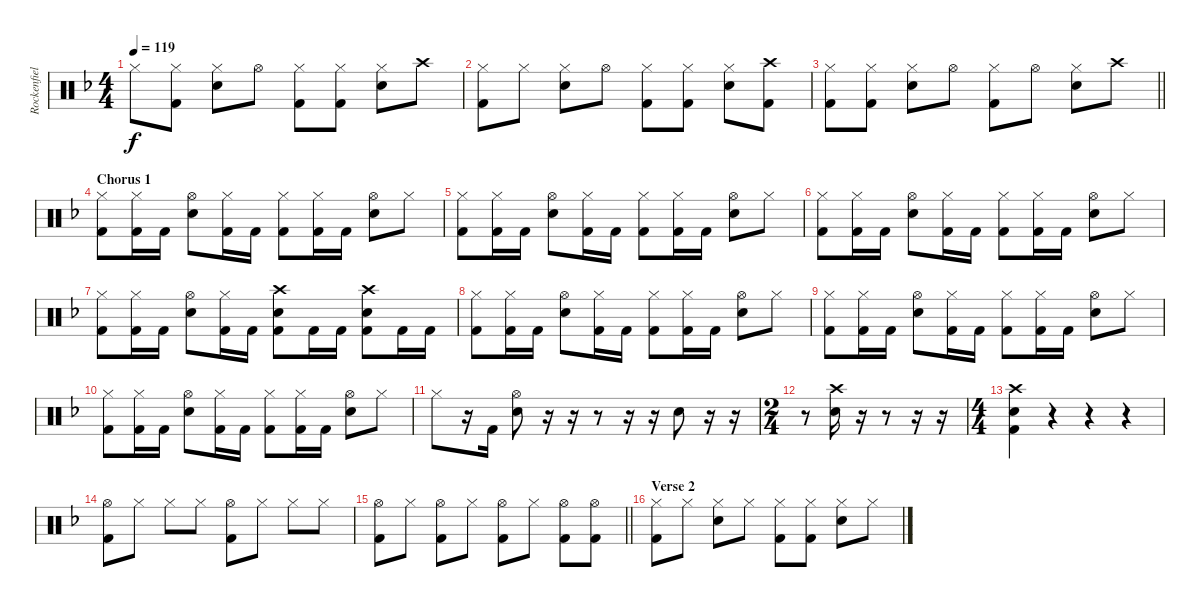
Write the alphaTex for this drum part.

\track ("Rockenfield" "Rockenfiel") {instrument percussion}
\staff {score}
\articulation defaults
\ts (4 4)
\tempo 119
\clef neutral
\ks dminor "Hi-Hat (closed)".8{dy f}
("Hi-Hat (closed)" "Kick (hit) 2").8 ("Hi-Hat (closed)" "Snare (hit) 2").8 "Hi-Hat (open)".8 ("Hi-Hat (closed)" "Kick (hit) 2").8 ("Hi-Hat (closed)" "Kick (hit) 2").8 ("Hi-Hat (closed)" "Snare (hit) 2").8 "Crash high (hit)".8 |
("Hi-Hat (closed)" "Kick (hit) 2").8 "Hi-Hat (closed)".8 ("Hi-Hat (closed)" "Snare (hit) 2").8 "Hi-Hat (open)".8 ("Hi-Hat (closed)" "Kick (hit) 2").8 ("Hi-Hat (closed)" "Kick (hit) 2").8 ("Hi-Hat (closed)" "Snare (hit) 2").8 ("Crash high (hit)" "Kick (hit) 2").8 |
\barLineRight lightlight
("Hi-Hat (closed)" "Kick (hit) 2").8 ("Hi-Hat (closed)" "Kick (hit) 2").8 ("Hi-Hat (closed)" "Snare (hit) 2").8 "Hi-Hat (open)".8 ("Hi-Hat (closed)" "Kick (hit) 2").8 "Hi-Hat (open)".8 ("Hi-Hat (closed)" "Snare (hit) 2").8 "Crash high (hit)".8 |
\section ("" "Chorus 1")
("Hi-Hat (closed)" "Kick (hit) 2").8 ("Hi-Hat (closed)" "Kick (hit) 2").16 "Kick (hit) 2".16 ("Hi-Hat (open)" "Snare (hit) 2").8 ("Hi-Hat (closed)" "Kick (hit) 2").16 "Kick (hit) 2".16 ("Hi-Hat (closed)" "Kick (hit) 2").8 ("Hi-Hat (closed)" "Kick (hit) 2").16 "Kick (hit) 2".16 ("Hi-Hat (open)" "Snare (hit) 2").8 "Hi-Hat (closed)".8 |
("Hi-Hat (closed)" "Kick (hit) 2").8 ("Hi-Hat (closed)" "Kick (hit) 2").16 "Kick (hit) 2".16 ("Hi-Hat (open)" "Snare (hit) 2").8 ("Hi-Hat (closed)" "Kick (hit) 2").16 "Kick (hit) 2".16 ("Hi-Hat (closed)" "Kick (hit) 2").8 ("Hi-Hat (closed)" "Kick (hit) 2").16 "Kick (hit) 2".16 ("Hi-Hat (open)" "Snare (hit) 2").8 "Hi-Hat (closed)".8 |
("Hi-Hat (closed)" "Kick (hit) 2").8 ("Hi-Hat (closed)" "Kick (hit) 2").16 "Kick (hit) 2".16 ("Hi-Hat (open)" "Snare (hit) 2").8 ("Hi-Hat (closed)" "Kick (hit) 2").16 "Kick (hit) 2".16 ("Hi-Hat (closed)" "Kick (hit) 2").8 ("Hi-Hat (closed)" "Kick (hit) 2").16 "Kick (hit) 2".16 ("Hi-Hat (open)" "Snare (hit) 2").8 "Hi-Hat (closed)".8 |
("Hi-Hat (closed)" "Kick (hit) 2").8 ("Hi-Hat (closed)" "Kick (hit) 2").16 "Kick (hit) 2".16 ("Hi-Hat (open)" "Snare (hit) 2").8 ("Hi-Hat (closed)" "Kick (hit) 2").16 "Kick (hit) 2".16 ("Crash high (hit)" "Kick (hit) 2" "Snare (hit) 2").8 "Kick (hit) 2".16 "Kick (hit) 2".16 ("Crash high (hit)" "Kick (hit) 2" "Snare (hit) 2").8 "Kick (hit) 2".16 "Kick (hit) 2".16 |
("Hi-Hat (closed)" "Kick (hit) 2").8 ("Hi-Hat (closed)" "Kick (hit) 2").16 "Kick (hit) 2".16 ("Hi-Hat (open)" "Snare (hit) 2").8 ("Hi-Hat (closed)" "Kick (hit) 2").16 "Kick (hit) 2".16 ("Hi-Hat (closed)" "Kick (hit) 2").8 ("Hi-Hat (closed)" "Kick (hit) 2").16 "Kick (hit) 2".16 ("Hi-Hat (open)" "Snare (hit) 2").8 "Hi-Hat (closed)".8 |
("Hi-Hat (closed)" "Kick (hit) 2").8 ("Hi-Hat (closed)" "Kick (hit) 2").16 "Kick (hit) 2".16 ("Hi-Hat (open)" "Snare (hit) 2").8 ("Hi-Hat (closed)" "Kick (hit) 2").16 "Kick (hit) 2".16 ("Hi-Hat (closed)" "Kick (hit) 2").8 ("Hi-Hat (closed)" "Kick (hit) 2").16 "Kick (hit) 2".16 ("Hi-Hat (open)" "Snare (hit) 2").8 "Hi-Hat (closed)".8 |
("Hi-Hat (closed)" "Kick (hit) 2").8 ("Hi-Hat (closed)" "Kick (hit) 2").16 "Kick (hit) 2".16 ("Hi-Hat (open)" "Snare (hit) 2").8 ("Hi-Hat (closed)" "Kick (hit) 2").16 "Kick (hit) 2".16 ("Hi-Hat (closed)" "Kick (hit) 2").8 ("Hi-Hat (closed)" "Kick (hit) 2").16 "Kick (hit) 2".16 ("Hi-Hat (open)" "Snare (hit) 2").8 "Hi-Hat (closed)".8 |
"Hi-Hat (closed)".8 r.16 "Kick (hit) 2".16 ("Hi-Hat (open)" "Snare (hit) 2").8 r.16 r.16 r.8 r.16 r.16 "Snare (hit) 2".8 r.16 r.16 |
\ts (2 4)
r.8 ("Crash high (hit)" "Snare (hit) 2").16 r.16 r.8 r.16 r.16 |
\ts (4 4)
("Crash high (hit)" "Kick (hit) 2" "Snare (hit) 2").4 r.4 r.4 r.4 |
("Hi-Hat (open)" "Kick (hit) 2").8 "Hi-Hat (closed)".8 "Hi-Hat (closed)".8 "Hi-Hat (closed)".8 ("Hi-Hat (open)" "Kick (hit) 2").8 "Hi-Hat (closed)".8 "Hi-Hat (closed)".8 "Hi-Hat (closed)".8 |
\barLineRight lightlight
("Hi-Hat (open)" "Kick (hit) 2").8 "Hi-Hat (closed)".8 ("Hi-Hat (open)" "Kick (hit) 2").8 "Hi-Hat (closed)".8 ("Hi-Hat (open)" "Kick (hit) 2").8 "Hi-Hat (closed)".8 ("Hi-Hat (open)" "Kick (hit) 2").8 ("Hi-Hat (open)" "Kick (hit) 2").8 |
\section ("" "Verse 2")
("Hi-Hat (closed)" "Kick (hit) 2").8 "Hi-Hat (closed)".8 ("Hi-Hat (closed)" "Snare (hit) 2").8 "Hi-Hat (closed)".8 ("Hi-Hat (closed)" "Kick (hit) 2").8 ("Hi-Hat (closed)" "Kick (hit) 2").8 ("Hi-Hat (closed)" "Snare (hit) 2").8 "Hi-Hat (closed)".8
